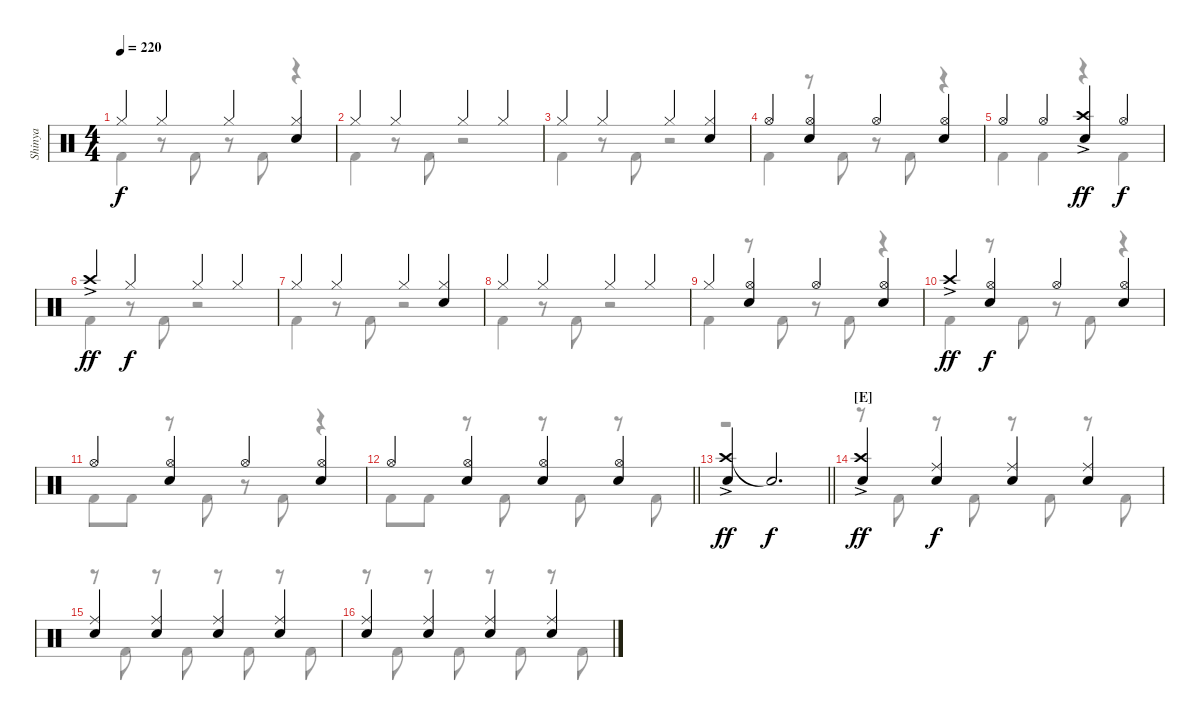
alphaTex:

\track ("Shinya" "Shinya") {instrument percussion}
\staff {score}
\articulation defaults
\voice
\ts (4 4)
\tempo 220
\clef neutral
\ks c "Hi-Hat (closed)".4{dy f} "Hi-Hat (closed)".4 "Hi-Hat (closed)".4
("Hi-Hat (closed)" "Snare (hit) 2").4 |
"Hi-Hat (closed)".4 "Hi-Hat (closed)".4 "Hi-Hat (closed)".4 "Hi-Hat (closed)".4 |
"Hi-Hat (closed)".4 "Hi-Hat (closed)".4 "Hi-Hat (closed)".4 ("Hi-Hat (closed)" "Snare (hit) 2").4 |
"Hi-Hat (open)".4 ("Hi-Hat (open)" "Snare (hit) 2").4 "Hi-Hat (open)".4 ("Hi-Hat (open)" "Snare (hit) 2").4 |
"Hi-Hat (open)".4 "Hi-Hat (open)".4 ("Crash high (hit)"{ac} "Snare (hit) 2").4{dy ff} "Hi-Hat (open)".4{dy f} |
"Crash high (hit)"{ac}.4{dy ff} "Hi-Hat (closed)".4{dy f} "Hi-Hat (closed)".4 "Hi-Hat (closed)".4 |
"Hi-Hat (closed)".4 "Hi-Hat (closed)".4 "Hi-Hat (closed)".4 ("Hi-Hat (closed)" "Snare (hit) 2").4 |
"Hi-Hat (closed)".4 "Hi-Hat (closed)".4 "Hi-Hat (closed)".4 "Hi-Hat (closed)".4 |
"Hi-Hat (closed)".4 ("Hi-Hat (open)" "Snare (hit) 2").4 "Hi-Hat (open)".4 ("Hi-Hat (open)" "Snare (hit) 2").4 |
"Crash high (hit)"{ac}.4{dy ff} ("Hi-Hat (open)" "Snare (hit) 2").4{dy f} "Hi-Hat (open)".4 ("Hi-Hat (open)" "Snare (hit) 2").4 |
"Hi-Hat (open)".4 ("Hi-Hat (open)" "Snare (hit) 2").4 "Hi-Hat (open)".4 ("Hi-Hat (open)" "Snare (hit) 2").4 |
\barLineRight lightlight "Hi-Hat (open)".4
("Hi-Hat (open)" "Snare (hit) 2").4 ("Hi-Hat (open)" "Snare (hit) 2").4 ("Hi-Hat (open)" "Snare (hit) 2").4 |
\barLineRight lightlight
("Crash high (hit)"{ac} "Snare (hit) 2").4{dy ff} "Snare (hit)"{t}.2{d dy f} |
\section ("" "[E]")
("Crash high (hit)"{ac} "Snare (hit) 2").4{dy ff} ("Ride (middle)" "Snare (hit) 2").4{dy f} ("Ride (middle)" "Snare (hit) 2").4 ("Ride (middle)" "Snare (hit) 2").4 |
("Ride (middle)" "Snare (hit) 2").4 ("Ride (middle)" "Snare (hit) 2").4 ("Ride (middle)" "Snare (hit) 2").4 ("Ride (middle)" "Snare (hit) 2").4 |
("Ride (middle)" "Snare (hit) 2").4 ("Ride (middle)" "Snare (hit) 2").4 ("Ride (middle)" "Snare (hit) 2").4 ("Ride (middle)" "Snare (hit) 2").4
\voice
\clef neutral
\ottava regular
\simile none
\ks c "Kick (hit) 2".4{dy f}
r.8 "Kick (hit) 2".8 r.8 "Kick (hit) 2".8 r.4 |
"Kick (hit) 2".4 r.8 "Kick (hit) 2".8 r.2 |
"Kick (hit) 2".4 r.8 "Kick (hit) 2".8 r.2 |
"Kick (hit) 2".4 r.8 "Kick (hit) 2".8 r.8 "Kick (hit) 2".8 r.4 |
"Kick (hit) 2".4 "Kick (hit) 2".4 r.4 "Kick (hit) 2".4 |
"Kick (hit) 2".4 r.8 "Kick (hit) 2".8 r.2 |
"Kick (hit) 2".4 r.8 "Kick (hit) 2".8 r.2 |
"Kick (hit) 2".4 r.8 "Kick (hit) 2".8 r.2 |
"Kick (hit) 2".4 r.8 "Kick (hit) 2".8 r.8 "Kick (hit) 2".8 r.4 |
"Kick (hit) 2".4 r.8 "Kick (hit) 2".8 r.8 "Kick (hit) 2".8 r.4 |
"Kick (hit) 2".8 "Kick (hit) 2".8 r.8 "Kick (hit) 2".8 r.8 "Kick (hit) 2".8 r.4 |
\barLineRight lightlight "Kick (hit) 2".8 "Kick (hit) 2".8
r.8 "Kick (hit) 2".8 r.8 "Kick (hit) 2".8 r.8 "Kick (hit) 2".8 |
\barLineRight lightlight
r.1 |
r.8 "Kick (hit) 2".8 r.8 "Kick (hit) 2".8 r.8 "Kick (hit) 2".8 r.8 "Kick (hit) 2".8 |
r.8 "Kick (hit) 2".8 r.8 "Kick (hit) 2".8 r.8 "Kick (hit) 2".8 r.8 "Kick (hit) 2".8 |
r.8 "Kick (hit) 2".8 r.8 "Kick (hit) 2".8 r.8 "Kick (hit) 2".8 r.8 "Kick (hit) 2".8
